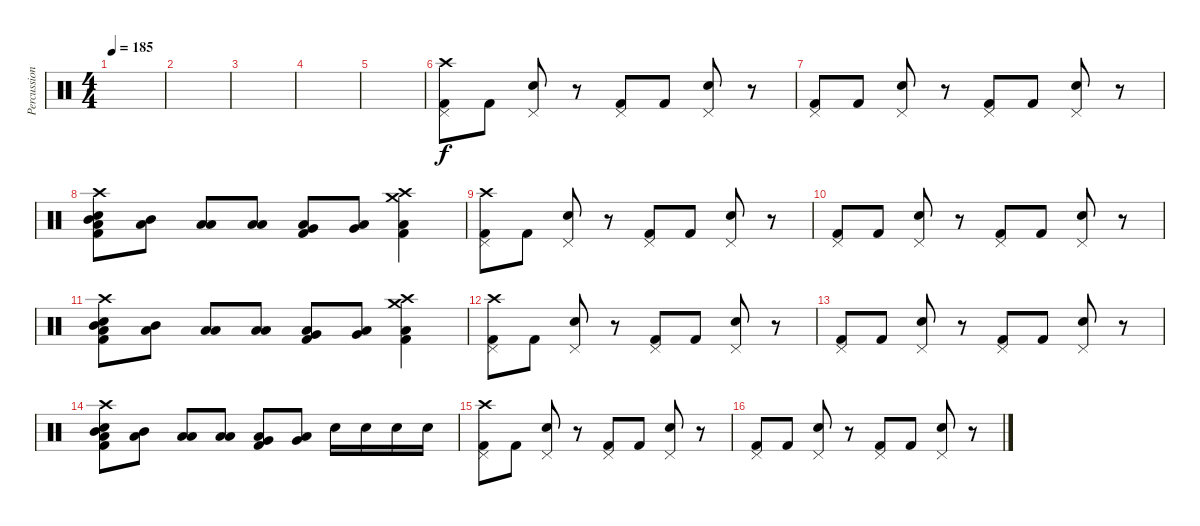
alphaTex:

\track ("Percussion" "Percussion") {instrument percussion}
\staff {score}
\articulation defaults
\ts (4 4)
\tempo 185
\clef neutral
\ks c
|
|
|
|
|
("Crash high (hit)" "Pedal Hi-Hat (hit)" "Kick (hit) 2").8 "Kick (hit) 2".8 ("Pedal Hi-Hat (hit)" "Snare (hit) 2").8 r.8 ("Pedal Hi-Hat (hit)" "Kick (hit) 2").8 "Kick (hit) 2".8 ("Pedal Hi-Hat (hit)" "Snare (hit) 2").8 r.8 |
("Pedal Hi-Hat (hit)" "Kick (hit) 2").8 "Kick (hit) 2".8 ("Pedal Hi-Hat (hit)" "Snare (hit) 2").8 r.8 ("Pedal Hi-Hat (hit)" "Kick (hit) 2").8 "Kick (hit) 2".8 ("Pedal Hi-Hat (hit)" "Snare (hit) 2").8 r.8 |
("Crash high (hit)" "Mid Tom (hit)" "Low Floor Tom (hit)" "Snare (hit) 2" "Kick (hit) 2").8 ("Mid Tom (hit)" "Low Floor Tom (hit)").8 ("Low Tom (hit)" "Low Floor Tom (hit)").8 ("Low Tom (hit)" "Low Floor Tom (hit)").8 ("Very Low Tom (hit)" "Low Floor Tom (hit)" "Kick (hit) 2").8 ("Very Low Tom (hit)" "Low Floor Tom (hit)").8 ("Crash medium (hit)" "Crash high (hit)" "Low Floor Tom (hit)" "Kick (hit) 2").4 |
("Crash high (hit)" "Pedal Hi-Hat (hit)" "Kick (hit) 2").8 "Kick (hit) 2".8 ("Pedal Hi-Hat (hit)" "Snare (hit) 2").8 r.8 ("Pedal Hi-Hat (hit)" "Kick (hit) 2").8 "Kick (hit) 2".8 ("Pedal Hi-Hat (hit)" "Snare (hit) 2").8 r.8 |
("Pedal Hi-Hat (hit)" "Kick (hit) 2").8 "Kick (hit) 2".8 ("Pedal Hi-Hat (hit)" "Snare (hit) 2").8 r.8 ("Pedal Hi-Hat (hit)" "Kick (hit) 2").8 "Kick (hit) 2".8 ("Pedal Hi-Hat (hit)" "Snare (hit) 2").8 r.8 |
("Crash high (hit)" "Mid Tom (hit)" "Low Floor Tom (hit)" "Snare (hit) 2" "Kick (hit) 2").8 ("Mid Tom (hit)" "Low Floor Tom (hit)").8 ("Low Tom (hit)" "Low Floor Tom (hit)").8 ("Low Tom (hit)" "Low Floor Tom (hit)").8 ("Very Low Tom (hit)" "Low Floor Tom (hit)" "Kick (hit) 2").8 ("Very Low Tom (hit)" "Low Floor Tom (hit)").8 ("Crash medium (hit)" "Crash high (hit)" "Low Floor Tom (hit)" "Kick (hit) 2").4 |
("Crash high (hit)" "Pedal Hi-Hat (hit)" "Kick (hit) 2").8 "Kick (hit) 2".8 ("Pedal Hi-Hat (hit)" "Snare (hit) 2").8 r.8 ("Pedal Hi-Hat (hit)" "Kick (hit) 2").8 "Kick (hit) 2".8 ("Pedal Hi-Hat (hit)" "Snare (hit) 2").8 r.8 |
("Pedal Hi-Hat (hit)" "Kick (hit) 2").8 "Kick (hit) 2".8 ("Pedal Hi-Hat (hit)" "Snare (hit) 2").8 r.8 ("Pedal Hi-Hat (hit)" "Kick (hit) 2").8 "Kick (hit) 2".8 ("Pedal Hi-Hat (hit)" "Snare (hit) 2").8 r.8 |
("Crash high (hit)" "Mid Tom (hit)" "Low Floor Tom (hit)" "Snare (hit) 2" "Kick (hit) 2").8 ("Mid Tom (hit)" "Low Floor Tom (hit)").8 ("Low Tom (hit)" "Low Floor Tom (hit)").8 ("Low Tom (hit)" "Low Floor Tom (hit)").8 ("Very Low Tom (hit)" "Low Floor Tom (hit)" "Kick (hit) 2").8 ("Very Low Tom (hit)" "Low Floor Tom (hit)").8 "Snare (hit) 2".16 "Snare (hit) 2".16 "Snare (hit) 2".16 "Snare (hit) 2".16 |
("Crash high (hit)" "Pedal Hi-Hat (hit)" "Kick (hit) 2").8 "Kick (hit) 2".8 ("Pedal Hi-Hat (hit)" "Snare (hit) 2").8 r.8 ("Pedal Hi-Hat (hit)" "Kick (hit) 2").8 "Kick (hit) 2".8 ("Pedal Hi-Hat (hit)" "Snare (hit) 2").8 r.8 |
("Pedal Hi-Hat (hit)" "Kick (hit) 2").8 "Kick (hit) 2".8 ("Pedal Hi-Hat (hit)" "Snare (hit) 2").8 r.8 ("Pedal Hi-Hat (hit)" "Kick (hit) 2").8 "Kick (hit) 2".8 ("Pedal Hi-Hat (hit)" "Snare (hit) 2").8 r.8
